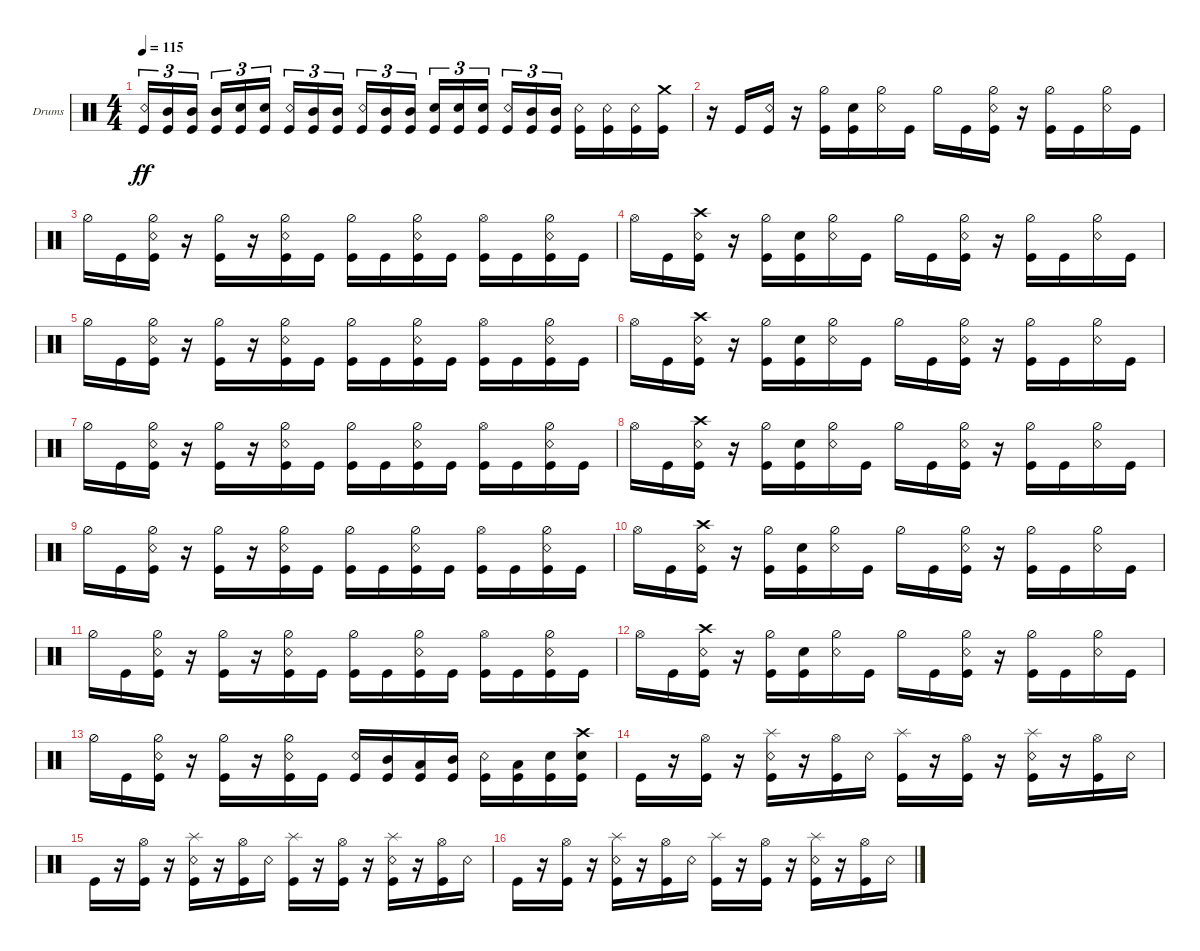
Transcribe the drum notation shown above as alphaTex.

\bracketExtendMode groupsimilarinstruments
\firstSystemTrackNameOrientation horizontal
\otherSystemsTrackNameOrientation horizontal
\track ("Drumkit" "Drums") {instrument percussion}
\staff {score}
\articulation defaults
\ts (4 4)
\tempo 115
\clef neutral
\ks c
("Kick (hit)" "Snare (rim shot)").16{tu (3 2) dy ff} ("Kick (hit)" "Mid Tom (hit)").16{tu (3 2)} ("Kick (hit)" "Mid Tom (hit)").16{tu (3 2)} ("Kick (hit)" "Mid Tom (hit)").16{tu (3 2)} ("Kick (hit)" "Snare (hit) 2").16{tu (3 2)} ("Kick (hit)" "Snare (hit) 2").16{tu (3 2)} ("Kick (hit)" "Snare (rim shot)").16{tu (3 2)} ("Kick (hit)" "Mid Tom (hit)").16{tu (3 2)} ("Kick (hit)" "Mid Tom (hit)").16{tu (3 2)} ("Kick (hit)" "Snare (rim shot)").16{tu (3 2)} ("Kick (hit)" "Mid Tom (hit)").16{tu (3 2)} ("Kick (hit)" "Mid Tom (hit)").16{tu (3 2)} ("Kick (hit)" "Snare (hit) 2").16{tu (3 2)} ("Kick (hit)" "Snare (hit) 2").16{tu (3 2)} ("Kick (hit)" "Snare (hit) 2").16{tu (3 2)} ("Kick (hit)" "Snare (rim shot)").16{tu (3 2)} ("Kick (hit)" "Mid Tom (hit)").16{tu (3 2)} ("Kick (hit)" "Mid Tom (hit)").16{tu (3 2)} ("Kick (hit)" "Snare (rim shot)").16 ("Kick (hit)" "Snare (rim shot)").16 ("Kick (hit)" "Snare (rim shot)").16 ("Kick (hit)" "Crash medium (hit)").16 |
r.16 "Kick (hit)".16 ("Kick (hit)" "Snare (rim shot)").16 r.16 ("Kick (hit)" "Hi-Hat (half)").16 ("Kick (hit)" "Snare (hit) 2").16 ("Hi-Hat (half)" "Snare (rim shot)").16 "Kick (hit)".16 "Hi-Hat (half)".16 "Kick (hit)".16 ("Kick (hit)" "Hi-Hat (half)" "Snare (rim shot)").16 r.16 ("Kick (hit)" "Hi-Hat (half)").16 "Kick (hit)".16 ("Hi-Hat (half)" "Snare (rim shot)").16 "Kick (hit)".16 |
"Hi-Hat (half)".16 "Kick (hit)".16 ("Kick (hit)" "Snare (rim shot)" "Hi-Hat (half)").16 r.16 ("Kick (hit)" "Hi-Hat (half)").16 r.16 ("Hi-Hat (half)" "Snare (rim shot)" "Kick (hit)").16 "Kick (hit)".16 ("Hi-Hat (half)" "Kick (hit)").16 "Kick (hit)".16 ("Kick (hit)" "Hi-Hat (half)" "Snare (rim shot)").16 "Kick (hit)".16 ("Kick (hit)" "Hi-Hat (open)").16 "Kick (hit)".16 ("Hi-Hat (half)" "Snare (rim shot)" "Kick (hit)").16 "Kick (hit)".16 |
"Hi-Hat (open)".16 "Kick (hit)".16 ("Kick (hit)" "Crash high (hit)" "Snare (rim shot)").16 r.16 ("Kick (hit)" "Hi-Hat (half)").16 ("Kick (hit)" "Snare (hit) 2").16 ("Hi-Hat (half)" "Snare (rim shot)").16 "Kick (hit)".16 "Hi-Hat (half)".16 "Kick (hit)".16 ("Kick (hit)" "Hi-Hat (half)" "Snare (rim shot)").16 r.16 ("Kick (hit)" "Hi-Hat (half)").16 "Kick (hit)".16 ("Hi-Hat (half)" "Snare (rim shot)").16 "Kick (hit)".16 |
"Hi-Hat (half)".16 "Kick (hit)".16 ("Kick (hit)" "Snare (rim shot)" "Hi-Hat (half)").16 r.16 ("Kick (hit)" "Hi-Hat (half)").16 r.16 ("Hi-Hat (half)" "Snare (rim shot)" "Kick (hit)").16 "Kick (hit)".16 ("Hi-Hat (half)" "Kick (hit)").16 "Kick (hit)".16 ("Kick (hit)" "Hi-Hat (half)" "Snare (rim shot)").16 "Kick (hit)".16 ("Kick (hit)" "Hi-Hat (open)").16 "Kick (hit)".16 ("Hi-Hat (half)" "Snare (rim shot)" "Kick (hit)").16 "Kick (hit)".16 |
"Hi-Hat (open)".16 "Kick (hit)".16 ("Kick (hit)" "Crash high (hit)" "Snare (rim shot)").16 r.16 ("Kick (hit)" "Hi-Hat (half)").16 ("Kick (hit)" "Snare (hit) 2").16 ("Hi-Hat (half)" "Snare (rim shot)").16 "Kick (hit)".16 "Hi-Hat (half)".16 "Kick (hit)".16 ("Kick (hit)" "Hi-Hat (half)" "Snare (rim shot)").16 r.16 ("Kick (hit)" "Hi-Hat (half)").16 "Kick (hit)".16 ("Hi-Hat (half)" "Snare (rim shot)").16 "Kick (hit)".16 |
"Hi-Hat (half)".16 "Kick (hit)".16 ("Kick (hit)" "Snare (rim shot)" "Hi-Hat (half)").16 r.16 ("Kick (hit)" "Hi-Hat (half)").16 r.16 ("Hi-Hat (half)" "Snare (rim shot)" "Kick (hit)").16 "Kick (hit)".16 ("Hi-Hat (half)" "Kick (hit)").16 "Kick (hit)".16 ("Kick (hit)" "Hi-Hat (half)" "Snare (rim shot)").16 "Kick (hit)".16 ("Kick (hit)" "Hi-Hat (open)").16 "Kick (hit)".16 ("Hi-Hat (half)" "Snare (rim shot)" "Kick (hit)").16 "Kick (hit)".16 |
"Hi-Hat (open)".16 "Kick (hit)".16 ("Kick (hit)" "Crash high (hit)" "Snare (rim shot)").16 r.16 ("Kick (hit)" "Hi-Hat (half)").16 ("Kick (hit)" "Snare (hit) 2").16 ("Hi-Hat (half)" "Snare (rim shot)").16 "Kick (hit)".16 "Hi-Hat (half)".16 "Kick (hit)".16 ("Kick (hit)" "Hi-Hat (half)" "Snare (rim shot)").16 r.16 ("Kick (hit)" "Hi-Hat (half)").16 "Kick (hit)".16 ("Hi-Hat (half)" "Snare (rim shot)").16 "Kick (hit)".16 |
"Hi-Hat (half)".16 "Kick (hit)".16 ("Kick (hit)" "Snare (rim shot)" "Hi-Hat (half)").16 r.16 ("Kick (hit)" "Hi-Hat (half)").16 r.16 ("Hi-Hat (half)" "Snare (rim shot)" "Kick (hit)").16 "Kick (hit)".16 ("Hi-Hat (half)" "Kick (hit)").16 "Kick (hit)".16 ("Kick (hit)" "Hi-Hat (half)" "Snare (rim shot)").16 "Kick (hit)".16 ("Kick (hit)" "Hi-Hat (open)").16 "Kick (hit)".16 ("Hi-Hat (half)" "Snare (rim shot)" "Kick (hit)").16 "Kick (hit)".16 |
"Hi-Hat (open)".16 "Kick (hit)".16 ("Kick (hit)" "Crash high (hit)" "Snare (rim shot)").16 r.16 ("Kick (hit)" "Hi-Hat (half)").16 ("Kick (hit)" "Snare (hit) 2").16 ("Hi-Hat (half)" "Snare (rim shot)").16 "Kick (hit)".16 "Hi-Hat (half)".16 "Kick (hit)".16 ("Kick (hit)" "Hi-Hat (half)" "Snare (rim shot)").16 r.16 ("Kick (hit)" "Hi-Hat (half)").16 "Kick (hit)".16 ("Hi-Hat (half)" "Snare (rim shot)").16 "Kick (hit)".16 |
"Hi-Hat (half)".16 "Kick (hit)".16 ("Kick (hit)" "Snare (rim shot)" "Hi-Hat (half)").16 r.16 ("Kick (hit)" "Hi-Hat (half)").16 r.16 ("Hi-Hat (half)" "Snare (rim shot)" "Kick (hit)").16 "Kick (hit)".16 ("Hi-Hat (half)" "Kick (hit)").16 "Kick (hit)".16 ("Kick (hit)" "Hi-Hat (half)" "Snare (rim shot)").16 "Kick (hit)".16 ("Kick (hit)" "Hi-Hat (open)").16 "Kick (hit)".16 ("Hi-Hat (half)" "Snare (rim shot)" "Kick (hit)").16 "Kick (hit)".16 |
"Hi-Hat (open)".16 "Kick (hit)".16 ("Kick (hit)" "Crash high (hit)" "Snare (rim shot)").16 r.16 ("Kick (hit)" "Hi-Hat (half)").16 ("Kick (hit)" "Snare (hit) 2").16 ("Hi-Hat (half)" "Snare (rim shot)").16 "Kick (hit)".16 "Hi-Hat (half)".16 "Kick (hit)".16 ("Kick (hit)" "Hi-Hat (half)" "Snare (rim shot)").16 r.16 ("Kick (hit)" "Hi-Hat (half)").16 "Kick (hit)".16 ("Hi-Hat (half)" "Snare (rim shot)").16 "Kick (hit)".16 |
"Hi-Hat (half)".16 "Kick (hit)".16 ("Kick (hit)" "Snare (rim shot)" "Hi-Hat (half)").16 r.16 ("Kick (hit)" "Hi-Hat (half)").16 r.16 ("Hi-Hat (half)" "Snare (rim shot)" "Kick (hit)").16 "Kick (hit)".16 ("Kick (hit)" "Snare (rim shot)").16 ("Kick (hit)" "Mid Tom (hit)").16 ("Kick (hit)" "Low Tom (hit)").16 ("Kick (hit)" "Mid Tom (hit)").16 ("Kick (hit)" "Snare (rim shot)").16 ("Kick (hit)" "Low Tom (hit)").16 ("Kick (hit)" "Snare (hit) 2").16 ("Kick (hit)" "Snare (hit) 2" "Crash high (hit)").16 |
"Kick (hit)".16 r.16 ("Kick (hit)" "Hi-Hat (open)").16 r.16 ("Kick (hit)" "Splash (hit)" "Snare (rim shot)").16 r.16 ("Kick (hit)" "Hi-Hat (open)").16 "Snare (rim shot)".16 ("Kick (hit)" "Splash (hit)").16 r.16 ("Kick (hit)" "Hi-Hat (open)").16 r.16 ("Kick (hit)" "Splash (hit)" "Snare (rim shot)").16 r.16 ("Kick (hit)" "Hi-Hat (open)").16 "Snare (rim shot)".16 |
"Kick (hit)".16 r.16 ("Kick (hit)" "Hi-Hat (open)").16 r.16 ("Kick (hit)" "Splash (hit)" "Snare (rim shot)").16 r.16 ("Kick (hit)" "Hi-Hat (open)").16 "Snare (rim shot)".16 ("Kick (hit)" "Splash (hit)").16 r.16 ("Kick (hit)" "Hi-Hat (open)").16 r.16 ("Kick (hit)" "Splash (hit)" "Snare (rim shot)").16 r.16 ("Kick (hit)" "Hi-Hat (open)").16 "Snare (rim shot)".16 |
"Kick (hit)".16 r.16 ("Kick (hit)" "Hi-Hat (open)").16 r.16 ("Kick (hit)" "Splash (hit)" "Snare (rim shot)").16 r.16 ("Kick (hit)" "Hi-Hat (open)").16 "Snare (rim shot)".16 ("Kick (hit)" "Splash (hit)").16 r.16 ("Kick (hit)" "Hi-Hat (open)").16 r.16 ("Kick (hit)" "Splash (hit)" "Snare (rim shot)").16 r.16 ("Kick (hit)" "Hi-Hat (open)").16 "Snare (rim shot)".16
